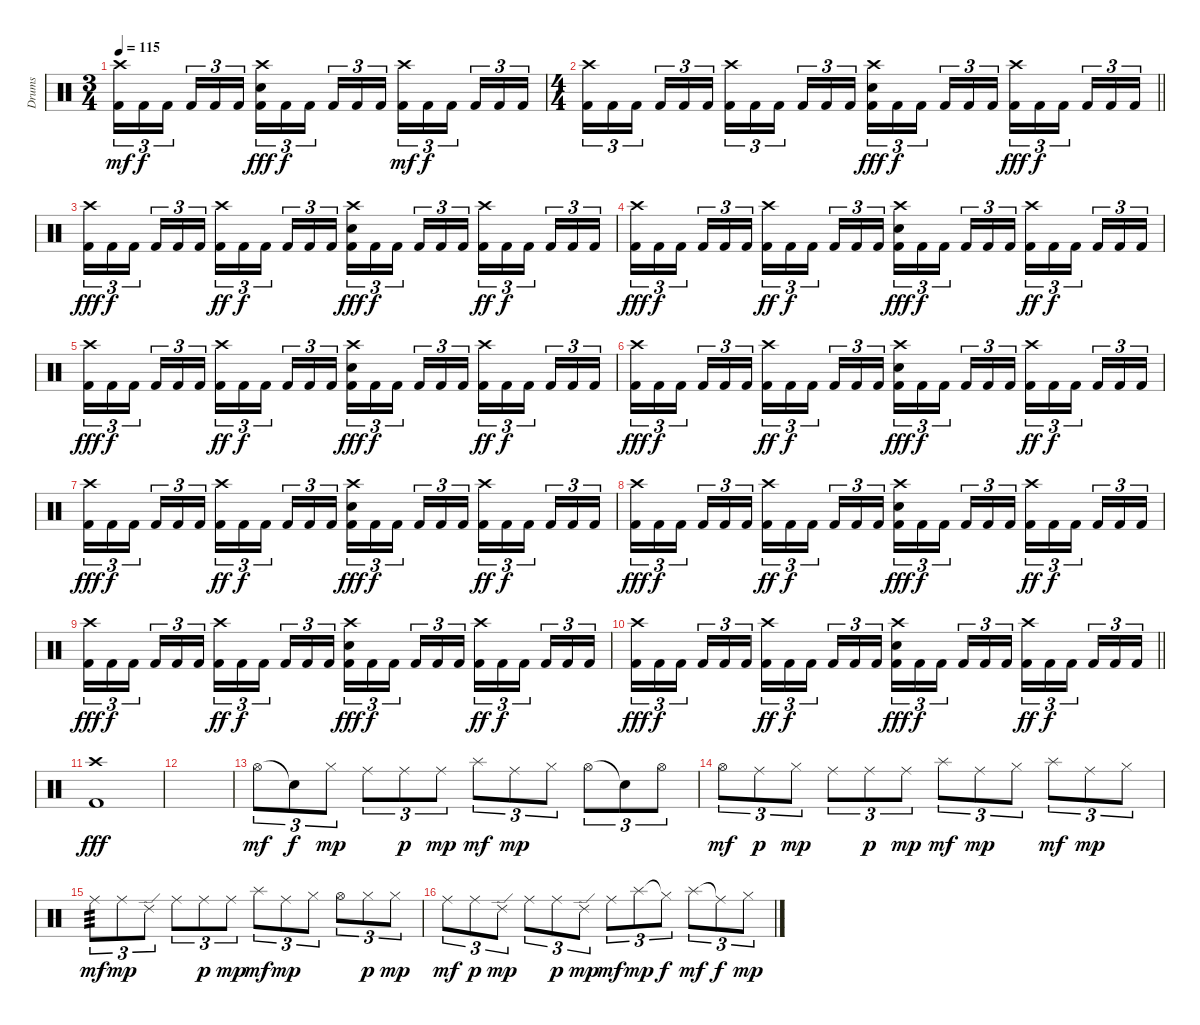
\track ("Drums" "Drums") {instrument percussion}
\staff {score}
\articulation defaults
\ts (3 4)
\tempo 115
\clef neutral
\ks c
("Crash high (hit)" "Kick (hit) 2").16{tu (3 2) dy mf} "Kick (hit) 2".16{tu (3 2) dy f} "Kick (hit) 2".16{tu (3 2) beam splitsecondary} "Kick (hit) 2".16{tu (3 2)} "Kick (hit) 2".16{tu (3 2)} "Kick (hit) 2".16{tu (3 2)} ("Crash high (hit)" "Snare (hit) 2" "Kick (hit) 2").16{tu (3 2) dy fff} "Kick (hit) 2".16{tu (3 2) dy f} "Kick (hit) 2".16{tu (3 2) beam splitsecondary} "Kick (hit) 2".16{tu (3 2)} "Kick (hit) 2".16{tu (3 2)} "Kick (hit) 2".16{tu (3 2)} ("Crash high (hit)" "Kick (hit) 2").16{tu (3 2) dy mf} "Kick (hit) 2".16{tu (3 2) dy f} "Kick (hit) 2".16{tu (3 2) beam splitsecondary} "Kick (hit) 2".16{tu (3 2)} "Kick (hit) 2".16{tu (3 2)} "Kick (hit) 2".16{tu (3 2)} |
\ts (4 4)
\barLineRight lightlight
("Crash high (hit)" "Kick (hit) 2").16{tu (3 2)} "Kick (hit) 2".16{tu (3 2)} "Kick (hit) 2".16{tu (3 2) beam splitsecondary} "Kick (hit) 2".16{tu (3 2)} "Kick (hit) 2".16{tu (3 2)} "Kick (hit) 2".16{tu (3 2)} ("Crash high (hit)" "Kick (hit) 2").16{tu (3 2)} "Kick (hit) 2".16{tu (3 2)} "Kick (hit) 2".16{tu (3 2) beam splitsecondary} "Kick (hit) 2".16{tu (3 2)} "Kick (hit) 2".16{tu (3 2)} "Kick (hit) 2".16{tu (3 2)} ("Crash high (hit)" "Snare (hit) 2" "Kick (hit) 2").16{tu (3 2) dy fff} "Kick (hit) 2".16{tu (3 2) dy f} "Kick (hit) 2".16{tu (3 2) beam splitsecondary} "Kick (hit) 2".16{tu (3 2)} "Kick (hit) 2".16{tu (3 2)} "Kick (hit) 2".16{tu (3 2)} ("Crash high (hit)" "Kick (hit) 2").16{tu (3 2) dy fff} "Kick (hit) 2".16{tu (3 2) dy f} "Kick (hit) 2".16{tu (3 2) beam splitsecondary} "Kick (hit) 2".16{tu (3 2)} "Kick (hit) 2".16{tu (3 2)} "Kick (hit) 2".16{tu (3 2)} |
\section ("" "")
("Crash high (hit)" "Kick (hit) 2").16{tu (3 2) dy fff} "Kick (hit) 2".16{tu (3 2) dy f} "Kick (hit) 2".16{tu (3 2) beam splitsecondary} "Kick (hit) 2".16{tu (3 2)} "Kick (hit) 2".16{tu (3 2)} "Kick (hit) 2".16{tu (3 2)} ("Crash high (hit)" "Kick (hit) 2").16{tu (3 2) dy ff} "Kick (hit) 2".16{tu (3 2) dy f} "Kick (hit) 2".16{tu (3 2) beam splitsecondary} "Kick (hit) 2".16{tu (3 2)} "Kick (hit) 2".16{tu (3 2)} "Kick (hit) 2".16{tu (3 2)} ("Crash high (hit)" "Snare (hit) 2" "Kick (hit) 2").16{tu (3 2) dy fff} "Kick (hit) 2".16{tu (3 2) dy f} "Kick (hit) 2".16{tu (3 2) beam splitsecondary} "Kick (hit) 2".16{tu (3 2)} "Kick (hit) 2".16{tu (3 2)} "Kick (hit) 2".16{tu (3 2)} ("Crash high (hit)" "Kick (hit) 2").16{tu (3 2) dy ff} "Kick (hit) 2".16{tu (3 2) dy f} "Kick (hit) 2".16{tu (3 2) beam splitsecondary} "Kick (hit) 2".16{tu (3 2)} "Kick (hit) 2".16{tu (3 2)} "Kick (hit) 2".16{tu (3 2)} |
("Crash high (hit)" "Kick (hit) 2").16{tu (3 2) dy fff} "Kick (hit) 2".16{tu (3 2) dy f} "Kick (hit) 2".16{tu (3 2) beam splitsecondary} "Kick (hit) 2".16{tu (3 2)} "Kick (hit) 2".16{tu (3 2)} "Kick (hit) 2".16{tu (3 2)} ("Crash high (hit)" "Kick (hit) 2").16{tu (3 2) dy ff} "Kick (hit) 2".16{tu (3 2) dy f} "Kick (hit) 2".16{tu (3 2) beam splitsecondary} "Kick (hit) 2".16{tu (3 2)} "Kick (hit) 2".16{tu (3 2)} "Kick (hit) 2".16{tu (3 2)} ("Crash high (hit)" "Snare (hit) 2" "Kick (hit) 2").16{tu (3 2) dy fff} "Kick (hit) 2".16{tu (3 2) dy f} "Kick (hit) 2".16{tu (3 2) beam splitsecondary} "Kick (hit) 2".16{tu (3 2)} "Kick (hit) 2".16{tu (3 2)} "Kick (hit) 2".16{tu (3 2)} ("Crash high (hit)" "Kick (hit) 2").16{tu (3 2) dy ff} "Kick (hit) 2".16{tu (3 2) dy f} "Kick (hit) 2".16{tu (3 2) beam splitsecondary} "Kick (hit) 2".16{tu (3 2)} "Kick (hit) 2".16{tu (3 2)} "Kick (hit) 2".16{tu (3 2)} |
("Crash high (hit)" "Kick (hit) 2").16{tu (3 2) dy fff} "Kick (hit) 2".16{tu (3 2) dy f} "Kick (hit) 2".16{tu (3 2) beam splitsecondary} "Kick (hit) 2".16{tu (3 2)} "Kick (hit) 2".16{tu (3 2)} "Kick (hit) 2".16{tu (3 2)} ("Crash high (hit)" "Kick (hit) 2").16{tu (3 2) dy ff} "Kick (hit) 2".16{tu (3 2) dy f} "Kick (hit) 2".16{tu (3 2) beam splitsecondary} "Kick (hit) 2".16{tu (3 2)} "Kick (hit) 2".16{tu (3 2)} "Kick (hit) 2".16{tu (3 2)} ("Crash high (hit)" "Snare (hit) 2" "Kick (hit) 2").16{tu (3 2) dy fff} "Kick (hit) 2".16{tu (3 2) dy f} "Kick (hit) 2".16{tu (3 2) beam splitsecondary} "Kick (hit) 2".16{tu (3 2)} "Kick (hit) 2".16{tu (3 2)} "Kick (hit) 2".16{tu (3 2)} ("Crash high (hit)" "Kick (hit) 2").16{tu (3 2) dy ff} "Kick (hit) 2".16{tu (3 2) dy f} "Kick (hit) 2".16{tu (3 2) beam splitsecondary} "Kick (hit) 2".16{tu (3 2)} "Kick (hit) 2".16{tu (3 2)} "Kick (hit) 2".16{tu (3 2)} |
("Crash high (hit)" "Kick (hit) 2").16{tu (3 2) dy fff} "Kick (hit) 2".16{tu (3 2) dy f} "Kick (hit) 2".16{tu (3 2) beam splitsecondary} "Kick (hit) 2".16{tu (3 2)} "Kick (hit) 2".16{tu (3 2)} "Kick (hit) 2".16{tu (3 2)} ("Crash high (hit)" "Kick (hit) 2").16{tu (3 2) dy ff} "Kick (hit) 2".16{tu (3 2) dy f} "Kick (hit) 2".16{tu (3 2) beam splitsecondary} "Kick (hit) 2".16{tu (3 2)} "Kick (hit) 2".16{tu (3 2)} "Kick (hit) 2".16{tu (3 2)} ("Crash high (hit)" "Snare (hit) 2" "Kick (hit) 2").16{tu (3 2) dy fff} "Kick (hit) 2".16{tu (3 2) dy f} "Kick (hit) 2".16{tu (3 2) beam splitsecondary} "Kick (hit) 2".16{tu (3 2)} "Kick (hit) 2".16{tu (3 2)} "Kick (hit) 2".16{tu (3 2)} ("Crash high (hit)" "Kick (hit) 2").16{tu (3 2) dy ff} "Kick (hit) 2".16{tu (3 2) dy f} "Kick (hit) 2".16{tu (3 2) beam splitsecondary} "Kick (hit) 2".16{tu (3 2)} "Kick (hit) 2".16{tu (3 2)} "Kick (hit) 2".16{tu (3 2)} |
("Crash high (hit)" "Kick (hit) 2").16{tu (3 2) dy fff} "Kick (hit) 2".16{tu (3 2) dy f} "Kick (hit) 2".16{tu (3 2) beam splitsecondary} "Kick (hit) 2".16{tu (3 2)} "Kick (hit) 2".16{tu (3 2)} "Kick (hit) 2".16{tu (3 2)} ("Crash high (hit)" "Kick (hit) 2").16{tu (3 2) dy ff} "Kick (hit) 2".16{tu (3 2) dy f} "Kick (hit) 2".16{tu (3 2) beam splitsecondary} "Kick (hit) 2".16{tu (3 2)} "Kick (hit) 2".16{tu (3 2)} "Kick (hit) 2".16{tu (3 2)} ("Crash high (hit)" "Snare (hit) 2" "Kick (hit) 2").16{tu (3 2) dy fff} "Kick (hit) 2".16{tu (3 2) dy f} "Kick (hit) 2".16{tu (3 2) beam splitsecondary} "Kick (hit) 2".16{tu (3 2)} "Kick (hit) 2".16{tu (3 2)} "Kick (hit) 2".16{tu (3 2)} ("Crash high (hit)" "Kick (hit) 2").16{tu (3 2) dy ff} "Kick (hit) 2".16{tu (3 2) dy f} "Kick (hit) 2".16{tu (3 2) beam splitsecondary} "Kick (hit) 2".16{tu (3 2)} "Kick (hit) 2".16{tu (3 2)} "Kick (hit) 2".16{tu (3 2)} |
("Crash high (hit)" "Kick (hit) 2").16{tu (3 2) dy fff} "Kick (hit) 2".16{tu (3 2) dy f} "Kick (hit) 2".16{tu (3 2) beam splitsecondary} "Kick (hit) 2".16{tu (3 2)} "Kick (hit) 2".16{tu (3 2)} "Kick (hit) 2".16{tu (3 2)} ("Crash high (hit)" "Kick (hit) 2").16{tu (3 2) dy ff} "Kick (hit) 2".16{tu (3 2) dy f} "Kick (hit) 2".16{tu (3 2) beam splitsecondary} "Kick (hit) 2".16{tu (3 2)} "Kick (hit) 2".16{tu (3 2)} "Kick (hit) 2".16{tu (3 2)} ("Crash high (hit)" "Snare (hit) 2" "Kick (hit) 2").16{tu (3 2) dy fff} "Kick (hit) 2".16{tu (3 2) dy f} "Kick (hit) 2".16{tu (3 2) beam splitsecondary} "Kick (hit) 2".16{tu (3 2)} "Kick (hit) 2".16{tu (3 2)} "Kick (hit) 2".16{tu (3 2)} ("Crash high (hit)" "Kick (hit) 2").16{tu (3 2) dy ff} "Kick (hit) 2".16{tu (3 2) dy f} "Kick (hit) 2".16{tu (3 2) beam splitsecondary} "Kick (hit) 2".16{tu (3 2)} "Kick (hit) 2".16{tu (3 2)} "Kick (hit) 2".16{tu (3 2)} |
("Crash high (hit)" "Kick (hit) 2").16{tu (3 2) dy fff} "Kick (hit) 2".16{tu (3 2) dy f} "Kick (hit) 2".16{tu (3 2) beam splitsecondary} "Kick (hit) 2".16{tu (3 2)} "Kick (hit) 2".16{tu (3 2)} "Kick (hit) 2".16{tu (3 2)} ("Crash high (hit)" "Kick (hit) 2").16{tu (3 2) dy ff} "Kick (hit) 2".16{tu (3 2) dy f} "Kick (hit) 2".16{tu (3 2) beam splitsecondary} "Kick (hit) 2".16{tu (3 2)} "Kick (hit) 2".16{tu (3 2)} "Kick (hit) 2".16{tu (3 2)} ("Crash high (hit)" "Snare (hit) 2" "Kick (hit) 2").16{tu (3 2) dy fff} "Kick (hit) 2".16{tu (3 2) dy f} "Kick (hit) 2".16{tu (3 2) beam splitsecondary} "Kick (hit) 2".16{tu (3 2)} "Kick (hit) 2".16{tu (3 2)} "Kick (hit) 2".16{tu (3 2)} ("Crash high (hit)" "Kick (hit) 2").16{tu (3 2) dy ff} "Kick (hit) 2".16{tu (3 2) dy f} "Kick (hit) 2".16{tu (3 2) beam splitsecondary} "Kick (hit) 2".16{tu (3 2)} "Kick (hit) 2".16{tu (3 2)} "Kick (hit) 2".16{tu (3 2)} |
\barLineRight lightlight
("Crash high (hit)" "Kick (hit) 2").16{tu (3 2) dy fff} "Kick (hit) 2".16{tu (3 2) dy f} "Kick (hit) 2".16{tu (3 2) beam splitsecondary} "Kick (hit) 2".16{tu (3 2)} "Kick (hit) 2".16{tu (3 2)} "Kick (hit) 2".16{tu (3 2)} ("Crash high (hit)" "Kick (hit) 2").16{tu (3 2) dy ff} "Kick (hit) 2".16{tu (3 2) dy f} "Kick (hit) 2".16{tu (3 2) beam splitsecondary} "Kick (hit) 2".16{tu (3 2)} "Kick (hit) 2".16{tu (3 2)} "Kick (hit) 2".16{tu (3 2)} ("Crash high (hit)" "Snare (hit) 2" "Kick (hit) 2").16{tu (3 2) dy fff} "Kick (hit) 2".16{tu (3 2) dy f} "Kick (hit) 2".16{tu (3 2) beam splitsecondary} "Kick (hit) 2".16{tu (3 2)} "Kick (hit) 2".16{tu (3 2)} "Kick (hit) 2".16{tu (3 2)} ("Crash high (hit)" "Kick (hit) 2").16{tu (3 2) dy ff} "Kick (hit) 2".16{tu (3 2) dy f} "Kick (hit) 2".16{tu (3 2) beam splitsecondary} "Kick (hit) 2".16{tu (3 2)} "Kick (hit) 2".16{tu (3 2)} "Kick (hit) 2".16{tu (3 2)} |
\section ("" "")
("Crash high (hit)" "Kick (hit) 2").1{dy fff} |
|
"Hi-Hat (open)".8{tu (3 2) dy mf} "Snare (hit)"{t}.8{tu (3 2) dy f} "Hi-Hat (closed)".8{tu (3 2) dy mp} "Ride (middle)".8{tu (3 2)} "Ride (middle)".8{tu (3 2) dy p} "Ride (middle)".8{tu (3 2) dy mp} "Splash (hit)".8{tu (3 2) dy mf} "Ride (middle)".8{tu (3 2) dy mp} "Hi-Hat (closed)".8{tu (3 2)} "Hi-Hat (open)".8{tu (3 2)} "Snare (hit)"{t}.8{tu (3 2)} "Hi-Hat (open)".8{tu (3 2)} |
"Hi-Hat (open)".8{tu (3 2) dy mf} "Ride (middle)".8{tu (3 2) dy p} "Hi-Hat (closed)".8{tu (3 2) dy mp} "Ride (middle)".8{tu (3 2)} "Ride (middle)".8{tu (3 2) dy p} "Ride (middle)".8{tu (3 2) dy mp} "Splash (hit)".8{tu (3 2) dy mf} "Ride (middle)".8{tu (3 2) dy mp} "Hi-Hat (closed)".8{tu (3 2)} "Splash (hit)".8{tu (3 2) dy mf} "Ride (middle)".8{tu (3 2) dy mp} "Hi-Hat (closed)".8{tu (3 2)} |
"Ride (middle)".8{tu (3 2) tp 3 dy mf} "Ride (middle)".8{tu (3 2) dy mp} "Ride (edge) 2".8{tu (3 2)} "Ride (middle)".8{tu (3 2)} "Ride (middle)".8{tu (3 2) dy p} "Ride (middle)".8{tu (3 2) dy mp} "Splash (hit)".8{tu (3 2) dy mf} "Ride (middle)".8{tu (3 2) dy mp} "Hi-Hat (closed)".8{tu (3 2)} "Hi-Hat (open)".8{tu (3 2)} "Hi-Hat (closed)".8{tu (3 2) dy p} "Hi-Hat (closed)".8{tu (3 2) dy mp} |
"Ride (middle)".8{tu (3 2) dy mf} "Ride (middle)".8{tu (3 2) dy p} "Ride (edge) 2".8{tu (3 2) dy mp} "Ride (middle)".8{tu (3 2)} "Ride (middle)".8{tu (3 2) dy p} "Ride (edge) 2".8{tu (3 2) dy mp} "Ride (middle)".8{tu (3 2) dy mf} "Splash (hit)".8{tu (3 2) dy mp} "Hi-Hat (closed)"{t}.8{tu (3 2) dy f} "Splash (hit)".8{tu (3 2) dy mf} "Ride (middle)"{t}.8{tu (3 2) dy f} "Hi-Hat (closed)".8{tu (3 2) dy mp}
